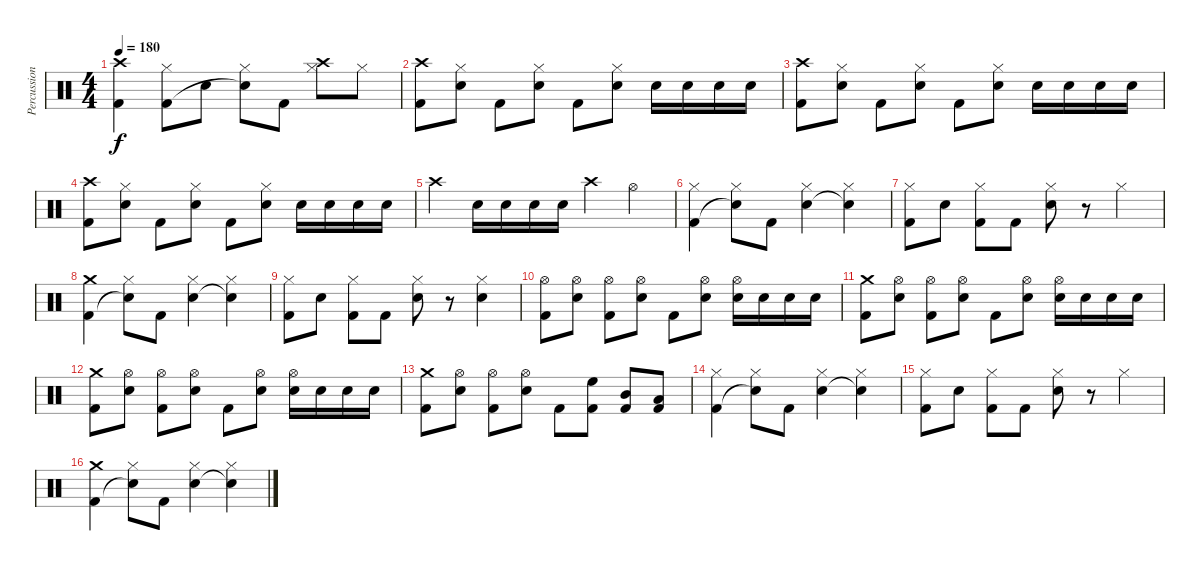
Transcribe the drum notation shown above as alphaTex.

\track ("Percussion" "Percussion") {instrument percussion}
\staff {score}
\articulation defaults
\ts (4 4)
\tempo 180
\clef neutral
\ks c
("Crash high (hit)" "Kick (hit) 2").4{dy f} ("Hi-Hat (closed)" "Kick (hit) 2").8 "Snare (hit) 2".8 ("Hi-Hat (closed)" "Snare (hit)"{t}).8 "Kick (hit) 2".8 ("Crash high (hit)" "Hi-Hat (closed)").8 "Hi-Hat (closed)".8 |
("Crash high (hit)" "Kick (hit) 2").8 ("Hi-Hat (closed)" "Snare (hit) 2").8 "Kick (hit) 2".8 ("Hi-Hat (closed)" "Snare (hit) 2").8 "Kick (hit) 2".8 ("Hi-Hat (closed)" "Snare (hit) 2").8 "Snare (hit) 2".16 "Snare (hit) 2".16 "Snare (hit) 2".16 "Snare (hit) 2".16 |
("Crash high (hit)" "Kick (hit) 2").8 ("Hi-Hat (closed)" "Snare (hit) 2").8 "Kick (hit) 2".8 ("Hi-Hat (closed)" "Snare (hit) 2").8 "Kick (hit) 2".8 ("Hi-Hat (closed)" "Snare (hit) 2").8 "Snare (hit) 2".16 "Snare (hit) 2".16 "Snare (hit) 2".16 "Snare (hit) 2".16 |
("Crash high (hit)" "Kick (hit) 2").8 ("Hi-Hat (closed)" "Snare (hit) 2").8 "Kick (hit) 2".8 ("Hi-Hat (closed)" "Snare (hit) 2").8 "Kick (hit) 2".8 ("Hi-Hat (closed)" "Snare (hit) 2").8 "Snare (hit) 2".16 "Snare (hit) 2".16 "Snare (hit) 2".16 "Snare (hit) 2".16 |
"Crash high (hit)".4 "Snare (hit) 2".16 "Snare (hit) 2".16 "Snare (hit) 2".16 "Snare (hit) 2".16 "Crash high (hit)".4 "Hi-Hat (open)".4 |
("Hi-Hat (closed)" "Kick (hit) 2").4 ("Hi-Hat (closed)" "Snare (hit)"{t}).8 "Kick (hit) 2".8 ("Hi-Hat (closed)" "Snare (hit) 2").4 ("Hi-Hat (closed)" "Snare (hit)"{t}).4 |
("Hi-Hat (closed)" "Kick (hit) 2").8 "Snare (hit) 2".8 ("Hi-Hat (closed)" "Kick (hit) 2").8 "Kick (hit) 2".8 ("Hi-Hat (closed)" "Snare (hit) 2").8 r.8 "Hi-Hat (closed)".4 |
("Crash medium (hit)" "Kick (hit) 2").4 ("Hi-Hat (closed)" "Snare (hit)"{t}).8 "Kick (hit) 2".8 ("Hi-Hat (closed)" "Snare (hit) 2").4 ("Hi-Hat (closed)" "Snare (hit)"{t}).4 |
("Hi-Hat (closed)" "Kick (hit) 2").8 "Snare (hit) 2".8 ("Hi-Hat (closed)" "Kick (hit) 2").8 "Kick (hit) 2".8 ("Hi-Hat (closed)" "Snare (hit) 2").8 r.8 ("Hi-Hat (closed)" "Snare (hit) 2").4 |
("Hi-Hat (open)" "Kick (hit) 2").8 ("Hi-Hat (open)" "Snare (hit) 2").8 ("Hi-Hat (open)" "Kick (hit) 2").8 ("Hi-Hat (open)" "Snare (hit) 2").8 "Kick (hit) 2".8 ("Hi-Hat (open)" "Snare (hit) 2").8 ("Hi-Hat (open)" "Snare (hit) 2").16 "Snare (hit) 2".16 "Snare (hit) 2".16 "Snare (hit) 2".16 |
("Crash medium (hit)" "Kick (hit) 2").8 ("Hi-Hat (open)" "Snare (hit) 2").8 ("Hi-Hat (open)" "Kick (hit) 2").8 ("Hi-Hat (open)" "Snare (hit) 2").8 "Kick (hit) 2".8 ("Hi-Hat (open)" "Snare (hit) 2").8 ("Hi-Hat (open)" "Snare (hit) 2").16 "Snare (hit) 2".16 "Snare (hit) 2".16 "Snare (hit) 2".16 |
("Crash medium (hit)" "Kick (hit) 2").8 ("Hi-Hat (open)" "Snare (hit) 2").8 ("Hi-Hat (open)" "Kick (hit) 2").8 ("Hi-Hat (open)" "Snare (hit) 2").8 "Kick (hit) 2".8 ("Hi-Hat (open)" "Snare (hit) 2").8 ("Hi-Hat (open)" "Snare (hit) 2").16 "Snare (hit) 2".16 "Snare (hit) 2".16 "Snare (hit) 2".16 |
("Crash medium (hit)" "Kick (hit) 2").8 ("Hi-Hat (open)" "Snare (hit) 2").8 ("Hi-Hat (open)" "Kick (hit) 2").8 ("Hi-Hat (open)" "Snare (hit) 2").8 "Kick (hit) 2".8 ("High Floor Tom (hit)" "Kick (hit) 2").8 ("Mid Tom (hit)" "Kick (hit) 2").8 ("Low Tom (hit)" "Kick (hit) 2").8 |
("Hi-Hat (closed)" "Kick (hit) 2").4 ("Hi-Hat (closed)" "Snare (hit)"{t}).8 "Kick (hit) 2".8 ("Hi-Hat (closed)" "Snare (hit) 2").4 ("Hi-Hat (closed)" "Snare (hit)"{t}).4 |
("Hi-Hat (closed)" "Kick (hit) 2").8 "Snare (hit) 2".8 ("Hi-Hat (closed)" "Kick (hit) 2").8 "Kick (hit) 2".8 ("Hi-Hat (closed)" "Snare (hit) 2").8 r.8 "Hi-Hat (closed)".4 |
("Crash medium (hit)" "Kick (hit) 2").4 ("Hi-Hat (closed)" "Snare (hit)"{t}).8 "Kick (hit) 2".8 ("Hi-Hat (closed)" "Snare (hit) 2").4 ("Hi-Hat (closed)" "Snare (hit)"{t}).4
